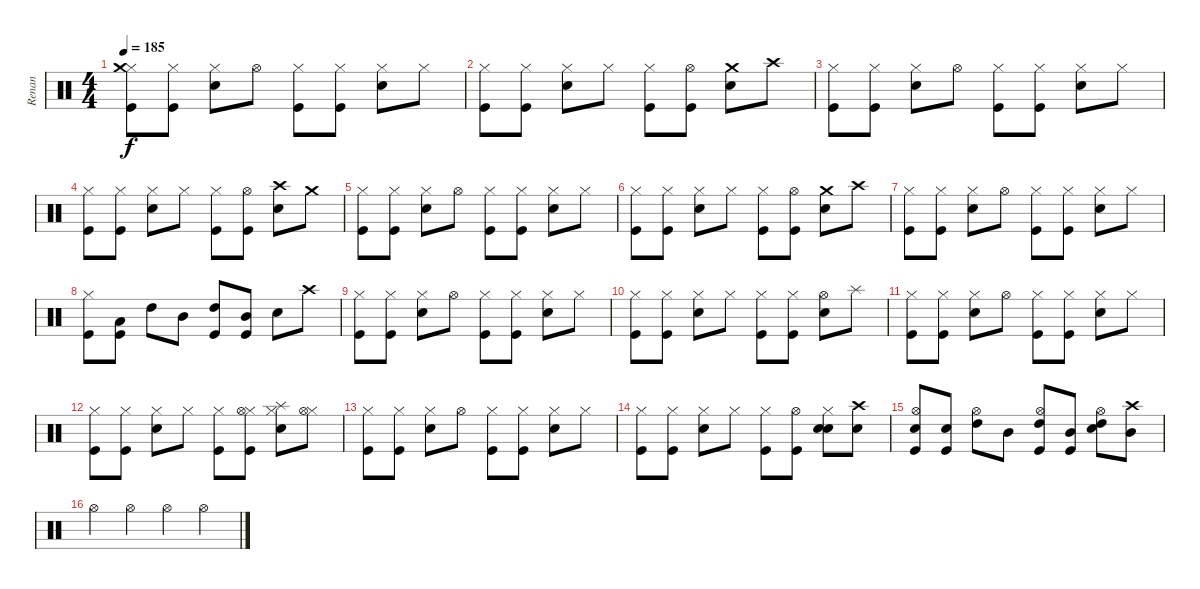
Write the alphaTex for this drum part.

\track ("Renan" "Renan") {instrument percussion}
\staff {score}
\articulation defaults
\ts (4 4)
\tempo 185
\clef neutral
\ks c
("Hi-Hat (closed)" "Crash medium (hit)" "Kick (hit)").8{dy f} ("Hi-Hat (closed)" "Kick (hit)").8 ("Hi-Hat (closed)" "Snare (hit) 2").8 "Hi-Hat (open)".8 ("Hi-Hat (closed)" "Kick (hit)").8 ("Hi-Hat (closed)" "Kick (hit)").8 ("Hi-Hat (closed)" "Snare (hit) 2").8 "Hi-Hat (closed)".8 |
("Hi-Hat (closed)" "Kick (hit)").8 ("Hi-Hat (closed)" "Kick (hit)").8 ("Hi-Hat (closed)" "Snare (hit) 2").8 "Hi-Hat (closed)".8 ("Hi-Hat (closed)" "Kick (hit)").8 ("Hi-Hat (open)" "Kick (hit)").8 ("Crash medium (hit)" "Snare (hit) 2").8 "Crash high (hit)".8 |
("Hi-Hat (closed)" "Kick (hit)").8 ("Hi-Hat (closed)" "Kick (hit)").8 ("Hi-Hat (closed)" "Snare (hit) 2").8 "Hi-Hat (open)".8 ("Hi-Hat (closed)" "Kick (hit)").8 ("Hi-Hat (closed)" "Kick (hit)").8 ("Hi-Hat (closed)" "Snare (hit) 2").8 "Hi-Hat (closed)".8 |
("Hi-Hat (closed)" "Kick (hit)").8 ("Hi-Hat (closed)" "Kick (hit)").8 ("Hi-Hat (closed)" "Snare (hit) 2").8 "Hi-Hat (closed)".8 ("Hi-Hat (closed)" "Kick (hit)").8 ("Hi-Hat (open)" "Kick (hit)").8 ("Crash high (hit)" "Snare (hit) 2").8 "Crash medium (hit)".8 |
("Hi-Hat (closed)" "Kick (hit)").8 ("Hi-Hat (closed)" "Kick (hit)").8 ("Hi-Hat (closed)" "Snare (hit) 2").8 "Hi-Hat (open)".8 ("Hi-Hat (closed)" "Kick (hit)").8 ("Hi-Hat (closed)" "Kick (hit)").8 ("Hi-Hat (closed)" "Snare (hit) 2").8 "Hi-Hat (closed)".8 |
("Hi-Hat (closed)" "Kick (hit)").8 ("Hi-Hat (closed)" "Kick (hit)").8 ("Hi-Hat (closed)" "Snare (hit) 2").8 "Hi-Hat (closed)".8 ("Hi-Hat (closed)" "Kick (hit)").8 ("Hi-Hat (open)" "Kick (hit)").8 ("Crash medium (hit)" "Snare (hit) 2").8 "Crash high (hit)".8 |
("Hi-Hat (closed)" "Kick (hit)").8 ("Hi-Hat (closed)" "Kick (hit)").8 ("Hi-Hat (closed)" "Snare (hit) 2").8 "Hi-Hat (open)".8 ("Hi-Hat (closed)" "Kick (hit)").8 ("Hi-Hat (closed)" "Kick (hit)").8 ("Hi-Hat (closed)" "Snare (hit) 2").8 "Hi-Hat (closed)".8 |
("Hi-Hat (closed)" "Kick (hit)").8 ("Low Floor Tom (hit)" "Kick (hit)").8 "High Tom (hit)".8 "Mid Tom (hit)".8 ("High Tom (hit)" "Kick (hit)").8 ("Mid Tom (hit)" "Kick (hit)").8 "Snare (hit) 2".8 "Crash high (hit)".8 |
("Hi-Hat (closed)" "Kick (hit)").8 ("Hi-Hat (closed)" "Kick (hit)").8 ("Hi-Hat (closed)" "Snare (hit) 2").8 "Hi-Hat (open)".8 ("Hi-Hat (closed)" "Kick (hit)").8 ("Hi-Hat (closed)" "Kick (hit)").8 ("Hi-Hat (closed)" "Snare (hit) 2").8 "Hi-Hat (closed)".8 |
("Hi-Hat (closed)" "Kick (hit)").8 ("Hi-Hat (closed)" "Kick (hit)").8 ("Hi-Hat (closed)" "Snare (hit) 2").8 "Hi-Hat (closed)".8 ("Hi-Hat (closed)" "Kick (hit)").8 ("Hi-Hat (closed)" "Kick (hit)").8 ("Hi-Hat (open)" "Snare (hit) 2").8 "Splash (hit)".8 |
("Hi-Hat (closed)" "Kick (hit)").8 ("Hi-Hat (closed)" "Kick (hit)").8 ("Hi-Hat (closed)" "Snare (hit) 2").8 "Hi-Hat (open)".8 ("Hi-Hat (closed)" "Kick (hit)").8 ("Hi-Hat (closed)" "Kick (hit)").8 ("Hi-Hat (closed)" "Snare (hit) 2").8 "Hi-Hat (closed)".8 |
("Hi-Hat (closed)" "Kick (hit)").8 ("Hi-Hat (closed)" "Kick (hit)").8 ("Hi-Hat (closed)" "Snare (hit) 2").8 "Hi-Hat (closed)".8 ("Hi-Hat (closed)" "Kick (hit)").8 ("Hi-Hat (closed)" "Hi-Hat (open)" "Kick (hit)").8 ("Hi-Hat (closed)" "Splash (hit)" "Snare (hit) 2").8 ("Hi-Hat (closed)" "Hi-Hat (open)").8 |
("Hi-Hat (closed)" "Kick (hit)").8 ("Hi-Hat (closed)" "Kick (hit)").8 ("Hi-Hat (closed)" "Snare (hit) 2").8 "Hi-Hat (open)".8 ("Hi-Hat (closed)" "Kick (hit)").8 ("Hi-Hat (closed)" "Kick (hit)").8 ("Hi-Hat (closed)" "Snare (hit) 2").8 "Hi-Hat (closed)".8 |
("Hi-Hat (closed)" "Kick (hit)").8 ("Hi-Hat (closed)" "Kick (hit)").8 ("Hi-Hat (closed)" "Snare (hit) 2").8 "Hi-Hat (closed)".8 ("Hi-Hat (closed)" "Kick (hit)").8 ("Hi-Hat (open)" "Kick (hit)").8 ("Hi-Hat (closed)" "Electric Snare (hit)" "Snare (hit) 2").8 ("Crash high (hit)" "Electric Snare (hit)").8 |
("Hi-Hat (open)" "Electric Snare (hit)" "Kick (hit)").8 ("Electric Snare (hit)" "Kick (hit)").8 ("Hi-Hat (open)" "High Tom (hit)").8 "Mid Tom (hit)".8 ("Hi-Hat (open)" "High Tom (hit)" "Kick (hit)").8 ("Mid Tom (hit)" "Kick (hit)").8 ("Hi-Hat (open)" "High Tom (hit)" "Snare (hit) 2").8 ("Crash high (hit)" "Mid Tom (hit)").8 |
"Hi-Hat (open)".4 "Hi-Hat (open)".4 "Hi-Hat (open)".4 "Hi-Hat (open)".4
